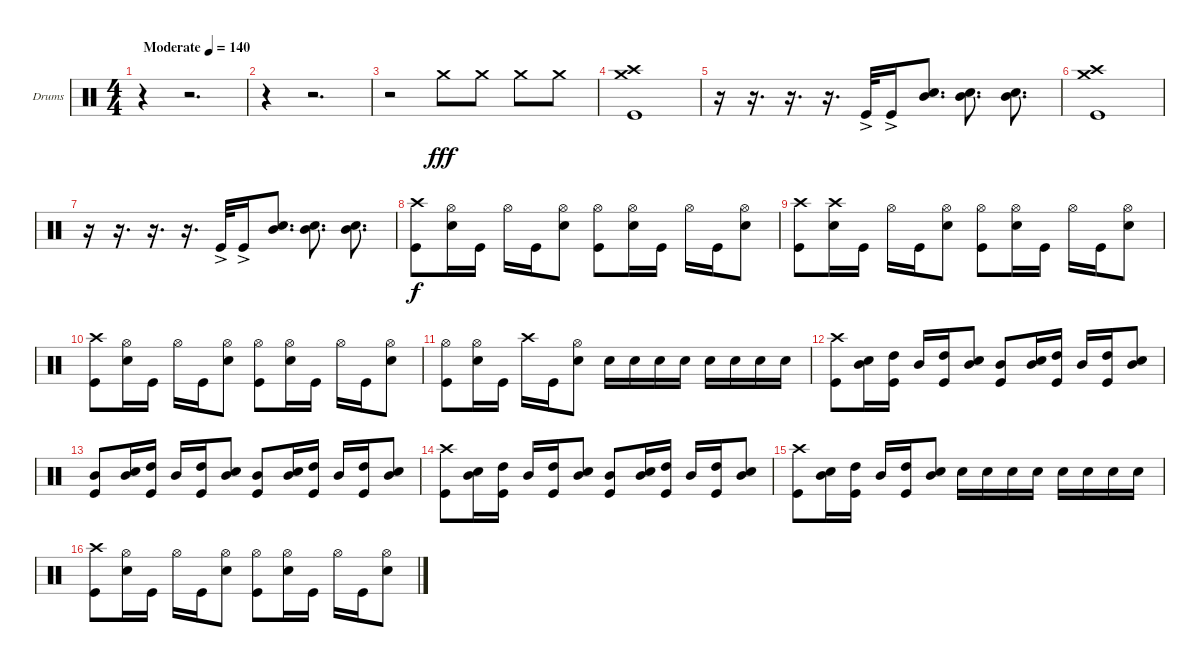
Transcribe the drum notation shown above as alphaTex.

\bracketExtendMode groupsimilarinstruments
\firstSystemTrackNameOrientation horizontal
\otherSystemsTrackNameOrientation horizontal
\track ("Porutchik" "Drums") {instrument percussion}
\staff {score}
\articulation defaults
\ts (4 4)
\beaming (8 2 2 2 2)
\tempo (140 "Moderate")
\clef neutral
\ks c
r.4{dy fff} r.2{d} |
r.4 r.2{d} |
r.2 "Crash medium (hit)".8 "Crash medium (hit)".8 "Crash medium (hit)".8 "Crash medium (hit)".8 |
("Kick (hit)" "Crash medium (hit)" "Crash high (hit)").1 |
r.16 r.16{d} r.16{d} r.16{d} "Kick (hit)"{ac}.32 "Kick (hit)"{ac}.16 ("Snare (hit) 2" "Mid Tom (hit)").8{d} ("Snare (hit) 2" "Mid Tom (hit)").8{d} ("Snare (hit) 2" "Mid Tom (hit)").8{d} |
("Kick (hit)" "Crash medium (hit)" "Crash high (hit)").1 |
r.16 r.16{d} r.16{d} r.16{d} "Kick (hit)"{ac}.32 "Kick (hit)"{ac}.16 ("Snare (hit) 2" "Mid Tom (hit)").8{d} ("Snare (hit) 2" "Mid Tom (hit)").8{d} ("Snare (hit) 2" "Mid Tom (hit)").8{d} |
("Kick (hit)" "Crash high (hit)").8{dy f} ("Snare (hit) 2" "Hi-Hat (open)").16 "Kick (hit)".16 "Hi-Hat (open)".16 "Kick (hit)".16 ("Snare (hit) 2" "Hi-Hat (open)").8 ("Kick (hit)" "Hi-Hat (open)").8 ("Snare (hit) 2" "Hi-Hat (open)").16 "Kick (hit)".16 "Hi-Hat (open)".16 "Kick (hit)".16 ("Snare (hit) 2" "Hi-Hat (open)").8 |
("Kick (hit)" "Crash high (hit)").8 ("Snare (hit) 2" "Crash high (hit)").16 "Kick (hit)".16 "Hi-Hat (open)".16 "Kick (hit)".16 ("Snare (hit) 2" "Hi-Hat (open)").8 ("Kick (hit)" "Hi-Hat (open)").8 ("Snare (hit) 2" "Hi-Hat (open)").16 "Kick (hit)".16 "Hi-Hat (open)".16 "Kick (hit)".16 ("Snare (hit) 2" "Hi-Hat (open)").8 |
("Kick (hit)" "Crash high (hit)").8 ("Snare (hit) 2" "Hi-Hat (open)").16 "Kick (hit)".16 "Hi-Hat (open)".16 "Kick (hit)".16 ("Snare (hit) 2" "Hi-Hat (open)").8 ("Kick (hit)" "Hi-Hat (open)").8 ("Snare (hit) 2" "Hi-Hat (open)").16 "Kick (hit)".16 "Hi-Hat (open)".16 "Kick (hit)".16 ("Snare (hit) 2" "Hi-Hat (open)").8 |
("Kick (hit)" "Hi-Hat (open)").8 ("Snare (hit) 2" "Hi-Hat (open)").16 "Kick (hit)".16 "Crash high (hit)".16 "Kick (hit)".16 ("Snare (hit) 2" "Hi-Hat (open)").8 "Snare (hit) 2".16 "Snare (hit) 2".16 "Snare (hit) 2".16 "Snare (hit) 2".16 "Snare (hit) 2".16 "Snare (hit) 2".16 "Snare (hit) 2".16 "Snare (hit) 2".16 |
("Crash high (hit)" "Kick (hit)").8 ("Mid Tom (hit)" "Snare (hit) 2").16 ("High Tom (hit)" "Kick (hit)").16 "Mid Tom (hit)".16 ("High Tom (hit)" "Kick (hit)").16 ("Mid Tom (hit)" "Snare (hit) 2").8 ("Mid Tom (hit)" "Kick (hit)").8 ("Mid Tom (hit)" "Snare (hit) 2").16 ("High Tom (hit)" "Kick (hit)").16 "Mid Tom (hit)".16 ("High Tom (hit)" "Kick (hit)").16 ("Mid Tom (hit)" "Snare (hit) 2").8 |
("Mid Tom (hit)" "Kick (hit)").8 ("Mid Tom (hit)" "Snare (hit) 2").16 ("High Tom (hit)" "Kick (hit)").16 "Mid Tom (hit)".16 ("High Tom (hit)" "Kick (hit)").16 ("Mid Tom (hit)" "Snare (hit) 2").8 ("Mid Tom (hit)" "Kick (hit)").8 ("Mid Tom (hit)" "Snare (hit) 2").16 ("High Tom (hit)" "Kick (hit)").16 "Mid Tom (hit)".16 ("High Tom (hit)" "Kick (hit)").16 ("Mid Tom (hit)" "Snare (hit) 2").8 |
("Crash high (hit)" "Kick (hit)").8 ("Mid Tom (hit)" "Snare (hit) 2").16 ("High Tom (hit)" "Kick (hit)").16 "Mid Tom (hit)".16 ("High Tom (hit)" "Kick (hit)").16 ("Mid Tom (hit)" "Snare (hit) 2").8 ("Mid Tom (hit)" "Kick (hit)").8 ("Mid Tom (hit)" "Snare (hit) 2").16 ("High Tom (hit)" "Kick (hit)").16 "Mid Tom (hit)".16 ("High Tom (hit)" "Kick (hit)").16 ("Mid Tom (hit)" "Snare (hit) 2").8 |
("Crash high (hit)" "Kick (hit)").8 ("Mid Tom (hit)" "Snare (hit) 2").16 ("High Tom (hit)" "Kick (hit)").16 "Mid Tom (hit)".16 ("High Tom (hit)" "Kick (hit)").16 ("Mid Tom (hit)" "Snare (hit) 2").8 "Snare (hit) 2".16 "Snare (hit) 2".16 "Snare (hit) 2".16 "Snare (hit) 2".16 "Snare (hit) 2".16 "Snare (hit) 2".16 "Snare (hit) 2".16 "Snare (hit) 2".16 |
("Kick (hit)" "Crash high (hit)").8 ("Snare (hit) 2" "Hi-Hat (open)").16 "Kick (hit)".16 "Hi-Hat (open)".16 "Kick (hit)".16 ("Snare (hit) 2" "Hi-Hat (open)").8 ("Kick (hit)" "Hi-Hat (open)").8 ("Snare (hit) 2" "Hi-Hat (open)").16 "Kick (hit)".16 "Hi-Hat (open)".16 "Kick (hit)".16 ("Snare (hit) 2" "Hi-Hat (open)").8
